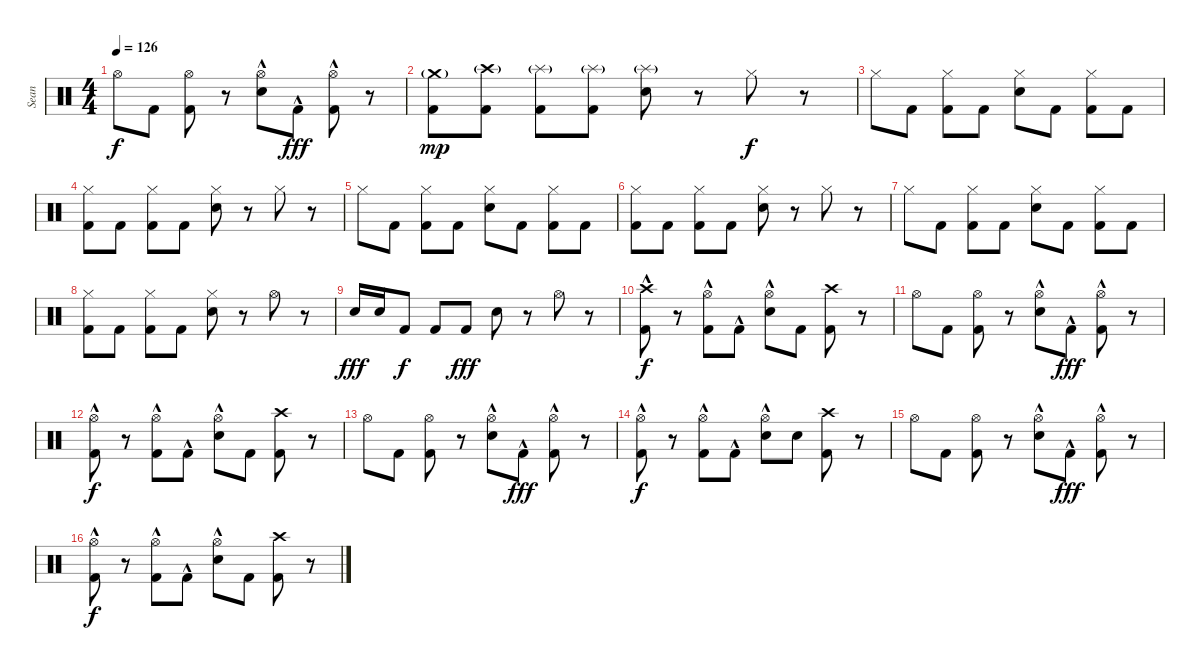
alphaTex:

\track ("Sean" "Sean") {instrument percussion}
\staff {score}
\articulation defaults
\ts (4 4)
\tempo 126
\clef neutral
\ks c "Hi-Hat (open)".8{dy f} "Kick (hit) 2".8
("Hi-Hat (open)" "Kick (hit) 2").8 r.8 ("Hi-Hat (open)" "Snare (hit) 2"{hac}).8 "Kick (hit) 2"{hac}.8{dy fff} ("Hi-Hat (open)" "Kick (hit) 2"{hac}).8 r.8 |
("Crash medium (hit)"{g} "Kick (hit) 2").8{dy mp} ("Crash high (hit)"{g} "Kick (hit) 2").8 ("Splash (hit)"{g} "Kick (hit) 2").8 ("Splash (hit)"{g} "Kick (hit) 2").8 ("Splash (hit)"{g} "Snare (hit) 2").8 r.8 "Hi-Hat (closed)".8{dy f} r.8 |
"Hi-Hat (closed)".8 "Kick (hit) 2".8 ("Hi-Hat (closed)" "Kick (hit) 2").8 "Kick (hit) 2".8 ("Hi-Hat (closed)" "Snare (hit) 2").8 "Kick (hit) 2".8 ("Hi-Hat (closed)" "Kick (hit) 2").8 "Kick (hit) 2".8 |
("Hi-Hat (closed)" "Kick (hit) 2").8 "Kick (hit) 2".8 ("Hi-Hat (closed)" "Kick (hit) 2").8 "Kick (hit) 2".8 ("Hi-Hat (closed)" "Snare (hit) 2").8 r.8 "Hi-Hat (closed)".8 r.8 |
"Hi-Hat (closed)".8 "Kick (hit) 2".8 ("Hi-Hat (closed)" "Kick (hit) 2").8 "Kick (hit) 2".8 ("Hi-Hat (closed)" "Snare (hit) 2").8 "Kick (hit) 2".8 ("Hi-Hat (closed)" "Kick (hit) 2").8 "Kick (hit) 2".8 |
("Hi-Hat (closed)" "Kick (hit) 2").8 "Kick (hit) 2".8 ("Hi-Hat (closed)" "Kick (hit) 2").8 "Kick (hit) 2".8 ("Hi-Hat (closed)" "Snare (hit) 2").8 r.8 "Hi-Hat (closed)".8 r.8 |
"Hi-Hat (closed)".8 "Kick (hit) 2".8 ("Hi-Hat (closed)" "Kick (hit) 2").8 "Kick (hit) 2".8 ("Hi-Hat (closed)" "Snare (hit) 2").8 "Kick (hit) 2".8 ("Hi-Hat (closed)" "Kick (hit) 2").8 "Kick (hit) 2".8 |
("Hi-Hat (closed)" "Kick (hit) 2").8 "Kick (hit) 2".8 ("Hi-Hat (closed)" "Kick (hit) 2").8 "Kick (hit) 2".8 ("Hi-Hat (closed)" "Snare (hit) 2").8 r.8 "Hi-Hat (open)".8 r.8 |
"Snare (hit) 2".16{dy fff} "Snare (hit) 2".16 "Kick (hit) 2".8{dy f} "Kick (hit) 2".8 "Kick (hit) 2".8{dy fff} "Snare (hit) 2".8 r.8 "Hi-Hat (open)".8 r.8 |
("Crash high (hit)" "Kick (hit) 2"{hac}).8{dy f} r.8 ("Hi-Hat (open)" "Kick (hit) 2"{hac}).8 "Kick (hit) 2"{hac}.8 ("Hi-Hat (open)" "Snare (hit) 2"{hac}).8 "Kick (hit) 2".8 ("Crash high (hit)" "Kick (hit) 2").8 r.8 |
"Hi-Hat (open)".8 "Kick (hit) 2".8 ("Hi-Hat (open)" "Kick (hit) 2").8 r.8 ("Hi-Hat (open)" "Snare (hit) 2"{hac}).8 "Kick (hit) 2"{hac}.8{dy fff} ("Hi-Hat (open)" "Kick (hit) 2"{hac}).8 r.8 |
("Hi-Hat (open)" "Kick (hit) 2"{hac}).8{dy f} r.8 ("Hi-Hat (open)" "Kick (hit) 2"{hac}).8 "Kick (hit) 2"{hac}.8 ("Hi-Hat (open)" "Snare (hit) 2"{hac}).8 "Kick (hit) 2".8 ("Crash high (hit)" "Kick (hit) 2").8 r.8 |
"Hi-Hat (open)".8 "Kick (hit) 2".8 ("Hi-Hat (open)" "Kick (hit) 2").8 r.8 ("Hi-Hat (open)" "Snare (hit) 2"{hac}).8 "Kick (hit) 2"{hac}.8{dy fff} ("Hi-Hat (open)" "Kick (hit) 2"{hac}).8 r.8 |
("Hi-Hat (open)" "Kick (hit) 2"{hac}).8{dy f} r.8 ("Hi-Hat (open)" "Kick (hit) 2"{hac}).8 "Kick (hit) 2"{hac}.8 ("Hi-Hat (open)" "Snare (hit) 2"{hac}).8 "Snare (hit) 2".8 ("Crash high (hit)" "Kick (hit) 2").8 r.8 |
"Hi-Hat (open)".8 "Kick (hit) 2".8 ("Hi-Hat (open)" "Kick (hit) 2").8 r.8 ("Hi-Hat (open)" "Snare (hit) 2"{hac}).8 "Kick (hit) 2"{hac}.8{dy fff} ("Hi-Hat (open)" "Kick (hit) 2"{hac}).8 r.8 |
("Hi-Hat (open)" "Kick (hit) 2"{hac}).8{dy f} r.8 ("Hi-Hat (open)" "Kick (hit) 2"{hac}).8 "Kick (hit) 2"{hac}.8 ("Hi-Hat (open)" "Snare (hit) 2"{hac}).8 "Kick (hit) 2".8 ("Crash high (hit)" "Kick (hit) 2").8 r.8
